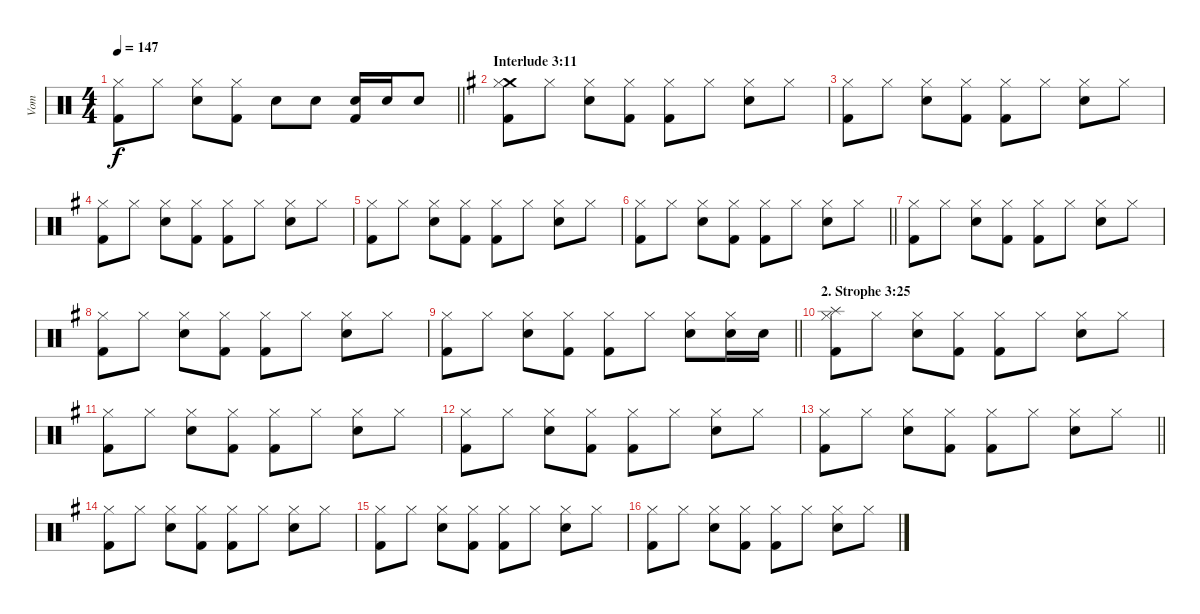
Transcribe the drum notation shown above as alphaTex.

\track ("Vom" "Vom") {instrument percussion}
\staff {score}
\articulation defaults
\ts (4 4)
\tempo 147
\clef neutral
\barLineRight lightlight
\ks c
("Hi-Hat (closed)" "Kick (hit) 2").8{dy f} "Hi-Hat (closed)".8 ("Hi-Hat (closed)" "Snare (hit) 2").8 ("Hi-Hat (closed)" "Kick (hit) 2").8 "Snare (hit) 2".8 "Snare (hit) 2".8 ("Snare (hit) 2" "Kick (hit) 2").16 "Snare (hit) 2".16 "Snare (hit) 2".8 |
\section ("" "Interlude 3:11")
\ks g
("Crash medium (hit)" "Hi-Hat (closed)" "Kick (hit) 2").8 "Hi-Hat (closed)".8 ("Hi-Hat (closed)" "Snare (hit) 2").8 ("Hi-Hat (closed)" "Kick (hit) 2").8 ("Hi-Hat (closed)" "Kick (hit) 2").8 "Hi-Hat (closed)".8 ("Hi-Hat (closed)" "Snare (hit) 2").8 "Hi-Hat (closed)".8 |
("Hi-Hat (closed)" "Kick (hit) 2").8 "Hi-Hat (closed)".8 ("Hi-Hat (closed)" "Snare (hit) 2").8 ("Hi-Hat (closed)" "Kick (hit) 2").8 ("Hi-Hat (closed)" "Kick (hit) 2").8 "Hi-Hat (closed)".8 ("Hi-Hat (closed)" "Snare (hit) 2").8 "Hi-Hat (closed)".8 |
("Hi-Hat (closed)" "Kick (hit) 2").8 "Hi-Hat (closed)".8 ("Hi-Hat (closed)" "Snare (hit) 2").8 ("Hi-Hat (closed)" "Kick (hit) 2").8 ("Hi-Hat (closed)" "Kick (hit) 2").8 "Hi-Hat (closed)".8 ("Hi-Hat (closed)" "Snare (hit) 2").8 "Hi-Hat (closed)".8 |
("Hi-Hat (closed)" "Kick (hit) 2").8 "Hi-Hat (closed)".8 ("Hi-Hat (closed)" "Snare (hit) 2").8 ("Hi-Hat (closed)" "Kick (hit) 2").8 ("Hi-Hat (closed)" "Kick (hit) 2").8 "Hi-Hat (closed)".8 ("Hi-Hat (closed)" "Snare (hit) 2").8 "Hi-Hat (closed)".8 |
\barLineRight lightlight
("Hi-Hat (closed)" "Kick (hit) 2").8 "Hi-Hat (closed)".8 ("Hi-Hat (closed)" "Snare (hit) 2").8 ("Hi-Hat (closed)" "Kick (hit) 2").8 ("Hi-Hat (closed)" "Kick (hit) 2").8 "Hi-Hat (closed)".8 ("Hi-Hat (closed)" "Snare (hit) 2").8 "Hi-Hat (closed)".8 |
("Hi-Hat (closed)" "Kick (hit) 2").8 "Hi-Hat (closed)".8 ("Hi-Hat (closed)" "Snare (hit) 2").8 ("Hi-Hat (closed)" "Kick (hit) 2").8 ("Hi-Hat (closed)" "Kick (hit) 2").8 "Hi-Hat (closed)".8 ("Hi-Hat (closed)" "Snare (hit) 2").8 "Hi-Hat (closed)".8 |
("Hi-Hat (closed)" "Kick (hit) 2").8 "Hi-Hat (closed)".8 ("Hi-Hat (closed)" "Snare (hit) 2").8 ("Hi-Hat (closed)" "Kick (hit) 2").8 ("Hi-Hat (closed)" "Kick (hit) 2").8 "Hi-Hat (closed)".8 ("Hi-Hat (closed)" "Snare (hit) 2").8 "Hi-Hat (closed)".8 |
\barLineRight lightlight
("Hi-Hat (closed)" "Kick (hit) 2").8 "Hi-Hat (closed)".8 ("Hi-Hat (closed)" "Snare (hit) 2").8 ("Hi-Hat (closed)" "Kick (hit) 2").8 ("Hi-Hat (closed)" "Kick (hit) 2").8 "Hi-Hat (closed)".8 ("Hi-Hat (closed)" "Snare (hit) 2").8 ("Hi-Hat (closed)" "Snare (hit) 2").16 "Snare (hit) 2".16 |
\section ("" "2. Strophe 3:25")
("Splash (hit)" "Hi-Hat (closed)" "Kick (hit) 2").8 "Hi-Hat (closed)".8 ("Hi-Hat (closed)" "Snare (hit) 2").8 ("Hi-Hat (closed)" "Kick (hit) 2").8 ("Hi-Hat (closed)" "Kick (hit) 2").8 "Hi-Hat (closed)".8 ("Hi-Hat (closed)" "Snare (hit) 2").8 "Hi-Hat (closed)".8 |
("Hi-Hat (closed)" "Kick (hit) 2").8 "Hi-Hat (closed)".8 ("Hi-Hat (closed)" "Snare (hit) 2").8 ("Hi-Hat (closed)" "Kick (hit) 2").8 ("Hi-Hat (closed)" "Kick (hit) 2").8 "Hi-Hat (closed)".8 ("Hi-Hat (closed)" "Snare (hit) 2").8 "Hi-Hat (closed)".8 |
("Hi-Hat (closed)" "Kick (hit) 2").8 "Hi-Hat (closed)".8 ("Hi-Hat (closed)" "Snare (hit) 2").8 ("Hi-Hat (closed)" "Kick (hit) 2").8 ("Hi-Hat (closed)" "Kick (hit) 2").8 "Hi-Hat (closed)".8 ("Hi-Hat (closed)" "Snare (hit) 2").8 "Hi-Hat (closed)".8 |
\barLineRight lightlight
("Hi-Hat (closed)" "Kick (hit) 2").8 "Hi-Hat (closed)".8 ("Hi-Hat (closed)" "Snare (hit) 2").8 ("Hi-Hat (closed)" "Kick (hit) 2").8 ("Hi-Hat (closed)" "Kick (hit) 2").8 "Hi-Hat (closed)".8 ("Hi-Hat (closed)" "Snare (hit) 2").8 "Hi-Hat (closed)".8 |
("Hi-Hat (closed)" "Kick (hit) 2").8 "Hi-Hat (closed)".8 ("Hi-Hat (closed)" "Snare (hit) 2").8 ("Hi-Hat (closed)" "Kick (hit) 2").8 ("Hi-Hat (closed)" "Kick (hit) 2").8 "Hi-Hat (closed)".8 ("Hi-Hat (closed)" "Snare (hit) 2").8 "Hi-Hat (closed)".8 |
("Hi-Hat (closed)" "Kick (hit) 2").8 "Hi-Hat (closed)".8 ("Hi-Hat (closed)" "Snare (hit) 2").8 ("Hi-Hat (closed)" "Kick (hit) 2").8 ("Hi-Hat (closed)" "Kick (hit) 2").8 "Hi-Hat (closed)".8 ("Hi-Hat (closed)" "Snare (hit) 2").8 "Hi-Hat (closed)".8 |
("Hi-Hat (closed)" "Kick (hit) 2").8 "Hi-Hat (closed)".8 ("Hi-Hat (closed)" "Snare (hit) 2").8 ("Hi-Hat (closed)" "Kick (hit) 2").8 ("Hi-Hat (closed)" "Kick (hit) 2").8 "Hi-Hat (closed)".8 ("Hi-Hat (closed)" "Snare (hit) 2").8 "Hi-Hat (closed)".8
